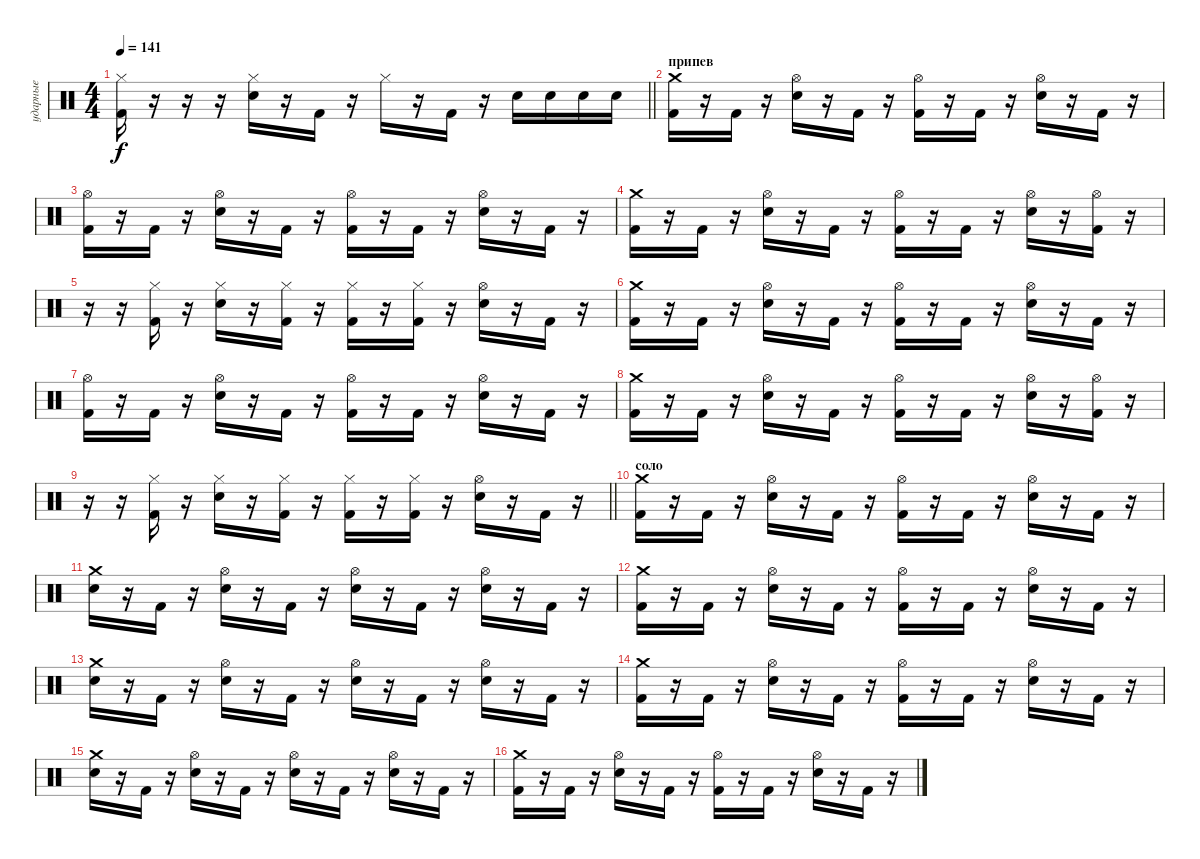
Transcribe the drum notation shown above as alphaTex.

\track ("ударные" "ударные") {instrument percussion}
\staff {score}
\articulation defaults
\ts (4 4)
\tempo 141
\clef neutral
\barLineRight lightlight
\ks c
("Kick (hit) 2" "Hi-Hat (closed)").16{dy f} r.16 r.16 r.16 ("Snare (hit) 2" "Hi-Hat (closed)").16 r.16 "Kick (hit) 2".16 r.16 "Hi-Hat (closed)".16 r.16 "Kick (hit) 2".16 r.16 "Snare (hit) 2".16 "Snare (hit) 2".16 "Snare (hit) 2".16 "Snare (hit) 2".16 |
\section ("" "припев")
("Kick (hit) 2" "Crash medium (hit)").16 r.16 "Kick (hit) 2".16 r.16 ("Snare (hit) 2" "Hi-Hat (open)").16 r.16 "Kick (hit) 2".16 r.16 ("Kick (hit) 2" "Hi-Hat (open)").16 r.16 "Kick (hit) 2".16 r.16 ("Snare (hit) 2" "Hi-Hat (open)").16 r.16 "Kick (hit) 2".16 r.16 |
("Kick (hit) 2" "Hi-Hat (open)").16 r.16 "Kick (hit) 2".16 r.16 ("Snare (hit) 2" "Hi-Hat (open)").16 r.16 "Kick (hit) 2".16 r.16 ("Kick (hit) 2" "Hi-Hat (open)").16 r.16 "Kick (hit) 2".16 r.16 ("Snare (hit) 2" "Hi-Hat (open)").16 r.16 "Kick (hit) 2".16 r.16 |
("Kick (hit) 2" "Crash medium (hit)").16 r.16 "Kick (hit) 2".16 r.16 ("Snare (hit) 2" "Hi-Hat (open)").16 r.16 "Kick (hit) 2".16 r.16 ("Kick (hit) 2" "Hi-Hat (open)").16 r.16 "Kick (hit) 2".16 r.16 ("Electric Snare (hit)" "Hi-Hat (open)").16 r.16 ("Kick (hit) 2" "Hi-Hat (open)").16 r.16 |
r.16 r.16 ("Kick (hit) 2" "Hi-Hat (closed)").16 r.16 ("Snare (hit) 2" "Hi-Hat (closed)").16 r.16 ("Kick (hit) 2" "Hi-Hat (closed)").16 r.16 ("Kick (hit) 2" "Hi-Hat (closed)").16 r.16 ("Kick (hit) 2" "Hi-Hat (closed)").16 r.16 ("Snare (hit) 2" "Hi-Hat (open)").16 r.16 "Kick (hit) 2".16 r.16 |
("Kick (hit) 2" "Crash medium (hit)").16 r.16 "Kick (hit) 2".16 r.16 ("Snare (hit) 2" "Hi-Hat (open)").16 r.16 "Kick (hit) 2".16 r.16 ("Kick (hit) 2" "Hi-Hat (open)").16 r.16 "Kick (hit) 2".16 r.16 ("Snare (hit) 2" "Hi-Hat (open)").16 r.16 "Kick (hit) 2".16 r.16 |
("Kick (hit) 2" "Hi-Hat (open)").16 r.16 "Kick (hit) 2".16 r.16 ("Snare (hit) 2" "Hi-Hat (open)").16 r.16 "Kick (hit) 2".16 r.16 ("Kick (hit) 2" "Hi-Hat (open)").16 r.16 "Kick (hit) 2".16 r.16 ("Snare (hit) 2" "Hi-Hat (open)").16 r.16 "Kick (hit) 2".16 r.16 |
("Kick (hit) 2" "Crash medium (hit)").16 r.16 "Kick (hit) 2".16 r.16 ("Snare (hit) 2" "Hi-Hat (open)").16 r.16 "Kick (hit) 2".16 r.16 ("Kick (hit) 2" "Hi-Hat (open)").16 r.16 "Kick (hit) 2".16 r.16 ("Electric Snare (hit)" "Hi-Hat (open)").16 r.16 ("Kick (hit) 2" "Hi-Hat (open)").16 r.16 |
\barLineRight lightlight
r.16 r.16 ("Kick (hit) 2" "Hi-Hat (closed)").16 r.16 ("Snare (hit) 2" "Hi-Hat (closed)").16 r.16 ("Kick (hit) 2" "Hi-Hat (closed)").16 r.16 ("Kick (hit) 2" "Hi-Hat (closed)").16 r.16 ("Kick (hit) 2" "Hi-Hat (closed)").16 r.16 ("Snare (hit) 2" "Hi-Hat (open)").16 r.16 "Kick (hit) 2".16 r.16 |
\section ("" "соло")
("Kick (hit) 2" "Crash medium (hit)").16 r.16 "Kick (hit) 2".16 r.16 ("Snare (hit) 2" "Hi-Hat (open)").16 r.16 "Kick (hit) 2".16 r.16 ("Kick (hit) 2" "Hi-Hat (open)").16 r.16 "Kick (hit) 2".16 r.16 ("Snare (hit) 2" "Hi-Hat (open)").16 r.16 "Kick (hit) 2".16 r.16 |
("Snare (hit) 2" "Crash medium (hit)").16 r.16 "Kick (hit) 2".16 r.16 ("Snare (hit) 2" "Hi-Hat (open)").16 r.16 "Kick (hit) 2".16 r.16 ("Snare (hit) 2" "Hi-Hat (open)").16 r.16 "Kick (hit) 2".16 r.16 ("Snare (hit) 2" "Hi-Hat (open)").16 r.16 "Kick (hit) 2".16 r.16 |
("Kick (hit) 2" "Crash medium (hit)").16 r.16 "Kick (hit) 2".16 r.16 ("Snare (hit) 2" "Hi-Hat (open)").16 r.16 "Kick (hit) 2".16 r.16 ("Kick (hit) 2" "Hi-Hat (open)").16 r.16 "Kick (hit) 2".16 r.16 ("Snare (hit) 2" "Hi-Hat (open)").16 r.16 "Kick (hit) 2".16 r.16 |
("Snare (hit) 2" "Crash medium (hit)").16 r.16 "Kick (hit) 2".16 r.16 ("Snare (hit) 2" "Hi-Hat (open)").16 r.16 "Kick (hit) 2".16 r.16 ("Snare (hit) 2" "Hi-Hat (open)").16 r.16 "Kick (hit) 2".16 r.16 ("Snare (hit) 2" "Hi-Hat (open)").16 r.16 "Kick (hit) 2".16 r.16 |
("Kick (hit) 2" "Crash medium (hit)").16 r.16 "Kick (hit) 2".16 r.16 ("Snare (hit) 2" "Hi-Hat (open)").16 r.16 "Kick (hit) 2".16 r.16 ("Kick (hit) 2" "Hi-Hat (open)").16 r.16 "Kick (hit) 2".16 r.16 ("Snare (hit) 2" "Hi-Hat (open)").16 r.16 "Kick (hit) 2".16 r.16 |
("Snare (hit) 2" "Crash medium (hit)").16 r.16 "Kick (hit) 2".16 r.16 ("Snare (hit) 2" "Hi-Hat (open)").16 r.16 "Kick (hit) 2".16 r.16 ("Snare (hit) 2" "Hi-Hat (open)").16 r.16 "Kick (hit) 2".16 r.16 ("Snare (hit) 2" "Hi-Hat (open)").16 r.16 "Kick (hit) 2".16 r.16 |
("Kick (hit) 2" "Crash medium (hit)").16 r.16 "Kick (hit) 2".16 r.16 ("Snare (hit) 2" "Hi-Hat (open)").16 r.16 "Kick (hit) 2".16 r.16 ("Kick (hit) 2" "Hi-Hat (open)").16 r.16 "Kick (hit) 2".16 r.16 ("Snare (hit) 2" "Hi-Hat (open)").16 r.16 "Kick (hit) 2".16 r.16
